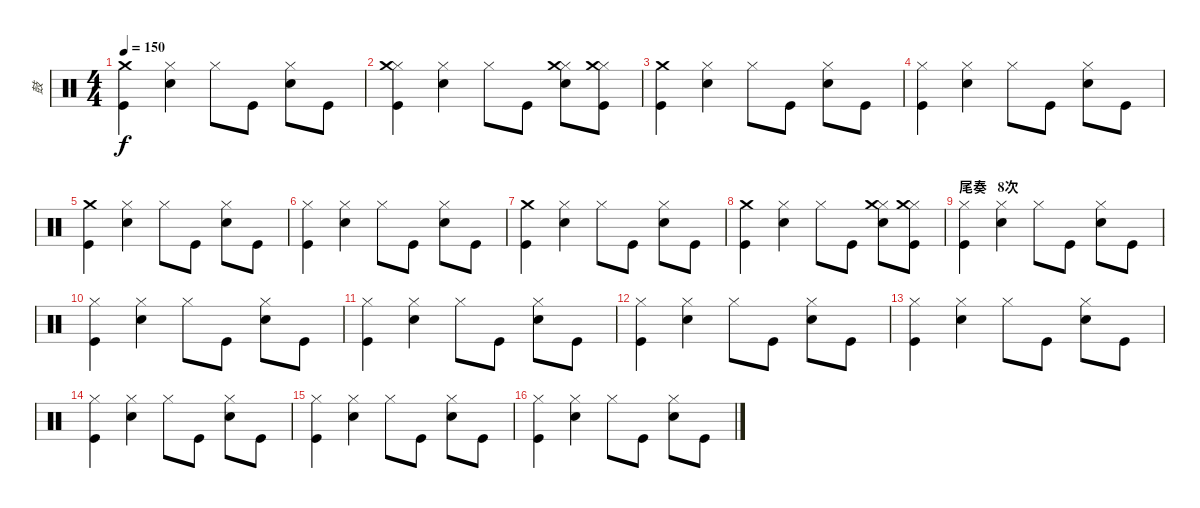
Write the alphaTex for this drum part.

\track ("鼓" "鼓") {instrument percussion}
\staff {score}
\articulation defaults
\ts (4 4)
\tempo 150
\clef neutral
\ks c
("Kick (hit)" "Crash medium (hit)").4{dy f} ("Snare (hit) 2" "Hi-Hat (closed)").4 "Hi-Hat (closed)".8 "Kick (hit)".8 ("Snare (hit) 2" "Hi-Hat (closed)").8 "Kick (hit)".8 |
("Kick (hit)" "Hi-Hat (closed)" "Crash medium (hit)").4 ("Snare (hit) 2" "Hi-Hat (closed)").4 "Hi-Hat (closed)".8 "Kick (hit)".8 ("Snare (hit) 2" "Hi-Hat (closed)" "Crash medium (hit)").8 ("Kick (hit)" "Hi-Hat (closed)" "Crash medium (hit)").8 |
("Kick (hit)" "Crash medium (hit)").4 ("Snare (hit) 2" "Hi-Hat (closed)").4 "Hi-Hat (closed)".8 "Kick (hit)".8 ("Snare (hit) 2" "Hi-Hat (closed)").8 "Kick (hit)".8 |
("Kick (hit)" "Hi-Hat (closed)").4 ("Snare (hit) 2" "Hi-Hat (closed)").4 "Hi-Hat (closed)".8 "Kick (hit)".8 ("Snare (hit) 2" "Hi-Hat (closed)").8 "Kick (hit)".8 |
("Kick (hit)" "Crash medium (hit)").4 ("Snare (hit) 2" "Hi-Hat (closed)").4 "Hi-Hat (closed)".8 "Kick (hit)".8 ("Snare (hit) 2" "Hi-Hat (closed)").8 "Kick (hit)".8 |
("Kick (hit)" "Hi-Hat (closed)").4 ("Snare (hit) 2" "Hi-Hat (closed)").4 "Hi-Hat (closed)".8 "Kick (hit)".8 ("Snare (hit) 2" "Hi-Hat (closed)").8 "Kick (hit)".8 |
("Kick (hit)" "Crash medium (hit)").4 ("Snare (hit) 2" "Hi-Hat (closed)").4 "Hi-Hat (closed)".8 "Kick (hit)".8 ("Snare (hit) 2" "Hi-Hat (closed)").8 "Kick (hit)".8 |
("Kick (hit)" "Crash medium (hit)").4 ("Snare (hit) 2" "Hi-Hat (closed)").4 "Hi-Hat (closed)".8 "Kick (hit)".8 ("Snare (hit) 2" "Hi-Hat (closed)" "Crash medium (hit)").8 ("Kick (hit)" "Hi-Hat (closed)" "Crash medium (hit)").8 |
\section ("" "尾奏   8次")
("Kick (hit)" "Hi-Hat (closed)").4 ("Snare (hit) 2" "Hi-Hat (closed)").4 "Hi-Hat (closed)".8 "Kick (hit)".8 ("Snare (hit) 2" "Hi-Hat (closed)").8 "Kick (hit)".8 |
("Kick (hit)" "Hi-Hat (closed)").4 ("Snare (hit) 2" "Hi-Hat (closed)").4 "Hi-Hat (closed)".8 "Kick (hit)".8 ("Snare (hit) 2" "Hi-Hat (closed)").8 "Kick (hit)".8 |
("Kick (hit)" "Hi-Hat (closed)").4 ("Snare (hit) 2" "Hi-Hat (closed)").4 "Hi-Hat (closed)".8 "Kick (hit)".8 ("Snare (hit) 2" "Hi-Hat (closed)").8 "Kick (hit)".8 |
("Kick (hit)" "Hi-Hat (closed)").4 ("Snare (hit) 2" "Hi-Hat (closed)").4 "Hi-Hat (closed)".8 "Kick (hit)".8 ("Snare (hit) 2" "Hi-Hat (closed)").8 "Kick (hit)".8 |
("Kick (hit)" "Hi-Hat (closed)").4 ("Snare (hit) 2" "Hi-Hat (closed)").4 "Hi-Hat (closed)".8 "Kick (hit)".8 ("Snare (hit) 2" "Hi-Hat (closed)").8 "Kick (hit)".8 |
("Kick (hit)" "Hi-Hat (closed)").4 ("Snare (hit) 2" "Hi-Hat (closed)").4 "Hi-Hat (closed)".8 "Kick (hit)".8 ("Snare (hit) 2" "Hi-Hat (closed)").8 "Kick (hit)".8 |
("Kick (hit)" "Hi-Hat (closed)").4 ("Snare (hit) 2" "Hi-Hat (closed)").4 "Hi-Hat (closed)".8 "Kick (hit)".8 ("Snare (hit) 2" "Hi-Hat (closed)").8 "Kick (hit)".8 |
("Kick (hit)" "Hi-Hat (closed)").4 ("Snare (hit) 2" "Hi-Hat (closed)").4 "Hi-Hat (closed)".8 "Kick (hit)".8 ("Snare (hit) 2" "Hi-Hat (closed)").8 "Kick (hit)".8
